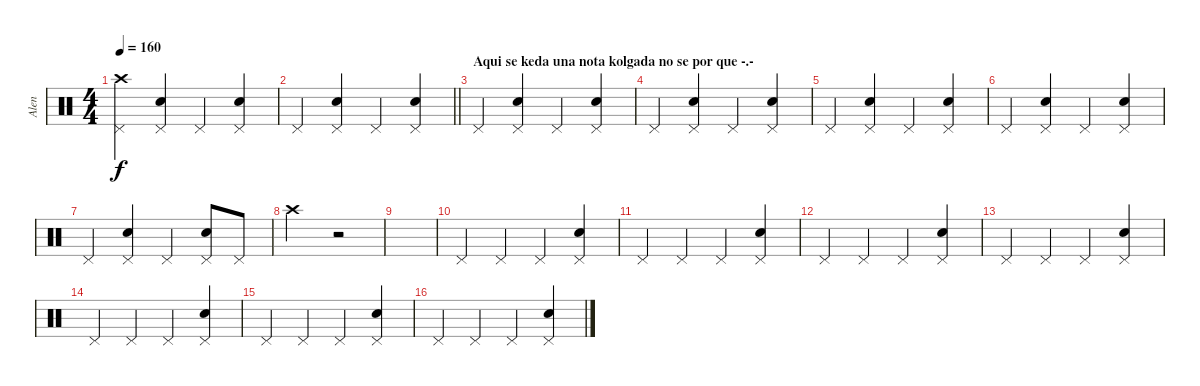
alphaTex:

\track ("Alen" "Alen") {instrument percussion}
\staff {score}
\articulation defaults
\ts (4 4)
\tempo 160
\clef neutral
\ks c
("Pedal Hi-Hat (hit)" "Crash high (hit)").4{dy f} ("Pedal Hi-Hat (hit)" "Snare (hit) 2").4 "Pedal Hi-Hat (hit)".4 ("Pedal Hi-Hat (hit)" "Snare (hit) 2").4 |
\barLineRight lightlight "Pedal Hi-Hat (hit)".4
("Pedal Hi-Hat (hit)" "Snare (hit) 2").4 "Pedal Hi-Hat (hit)".4 ("Pedal Hi-Hat (hit)" "Snare (hit) 2").4 |
\section ("" "Aqui se keda una nota kolgada no se por que -.-")
"Pedal Hi-Hat (hit)".4 ("Pedal Hi-Hat (hit)" "Snare (hit) 2").4 "Pedal Hi-Hat (hit)".4 ("Pedal Hi-Hat (hit)" "Snare (hit) 2").4 |
"Pedal Hi-Hat (hit)".4 ("Pedal Hi-Hat (hit)" "Snare (hit) 2").4 "Pedal Hi-Hat (hit)".4 ("Pedal Hi-Hat (hit)" "Snare (hit) 2").4 |
"Pedal Hi-Hat (hit)".4 ("Pedal Hi-Hat (hit)" "Snare (hit) 2").4 "Pedal Hi-Hat (hit)".4 ("Pedal Hi-Hat (hit)" "Snare (hit) 2").4 |
"Pedal Hi-Hat (hit)".4 ("Pedal Hi-Hat (hit)" "Snare (hit) 2").4 "Pedal Hi-Hat (hit)".4 ("Pedal Hi-Hat (hit)" "Snare (hit) 2").4 |
"Pedal Hi-Hat (hit)".4 ("Pedal Hi-Hat (hit)" "Snare (hit) 2").4 "Pedal Hi-Hat (hit)".4 ("Pedal Hi-Hat (hit)" "Snare (hit) 2").8 "Pedal Hi-Hat (hit)".8 |
"Crash high (hit)".2 r.2 |
|
"Pedal Hi-Hat (hit)".4 "Pedal Hi-Hat (hit)".4 "Pedal Hi-Hat (hit)".4 ("Pedal Hi-Hat (hit)" "Snare (hit) 2").4 |
"Pedal Hi-Hat (hit)".4 "Pedal Hi-Hat (hit)".4 "Pedal Hi-Hat (hit)".4 ("Pedal Hi-Hat (hit)" "Snare (hit) 2").4 |
"Pedal Hi-Hat (hit)".4 "Pedal Hi-Hat (hit)".4 "Pedal Hi-Hat (hit)".4 ("Pedal Hi-Hat (hit)" "Snare (hit) 2").4 |
"Pedal Hi-Hat (hit)".4 "Pedal Hi-Hat (hit)".4 "Pedal Hi-Hat (hit)".4 ("Pedal Hi-Hat (hit)" "Snare (hit) 2").4 |
"Pedal Hi-Hat (hit)".4 "Pedal Hi-Hat (hit)".4 "Pedal Hi-Hat (hit)".4 ("Pedal Hi-Hat (hit)" "Snare (hit) 2").4 |
"Pedal Hi-Hat (hit)".4 "Pedal Hi-Hat (hit)".4 "Pedal Hi-Hat (hit)".4 ("Pedal Hi-Hat (hit)" "Snare (hit) 2").4 |
"Pedal Hi-Hat (hit)".4 "Pedal Hi-Hat (hit)".4 "Pedal Hi-Hat (hit)".4 ("Pedal Hi-Hat (hit)" "Snare (hit) 2").4
